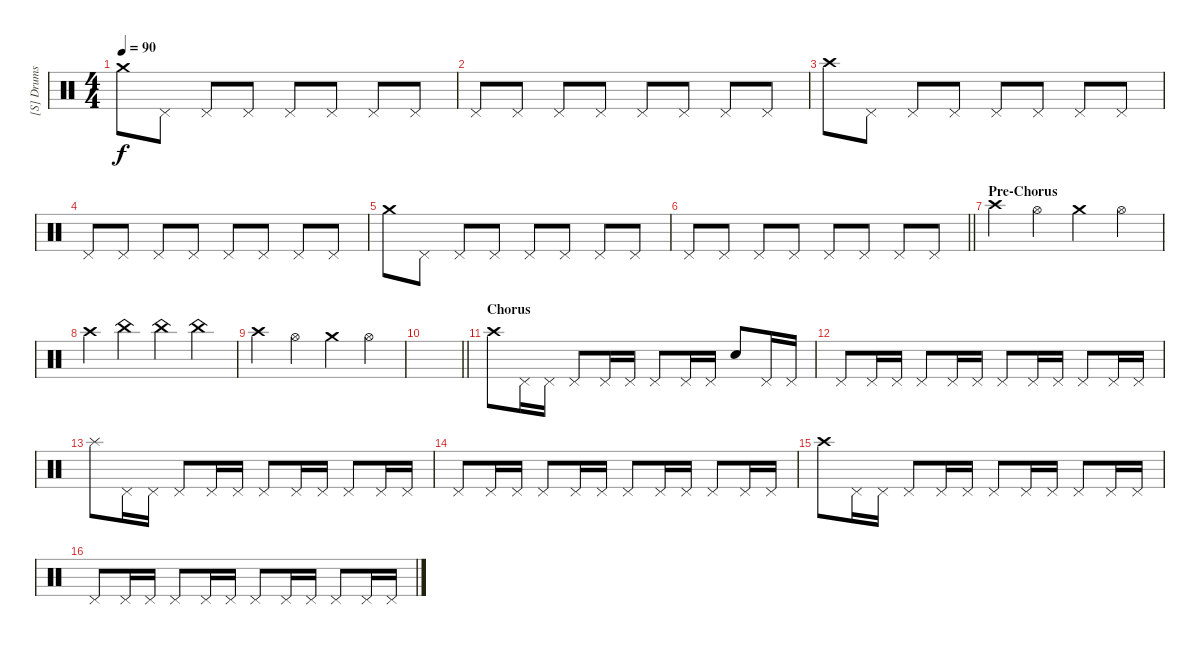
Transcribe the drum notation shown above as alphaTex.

\track ("[S] Drums II (Stewart)" "[S] Drums ") {instrument percussion}
\staff {score}
\articulation defaults
\ts (4 4)
\tempo 90
\clef neutral
\ks c "Crash medium (hit)".8{dy f} "Pedal Hi-Hat (hit)".8 "Pedal Hi-Hat (hit)".8 "Pedal Hi-Hat (hit)".8 "Pedal Hi-Hat (hit)".8 "Pedal Hi-Hat (hit)".8 "Pedal Hi-Hat (hit)".8 "Pedal Hi-Hat (hit)".8
|
"Pedal Hi-Hat (hit)".8 "Pedal Hi-Hat (hit)".8 "Pedal Hi-Hat (hit)".8 "Pedal Hi-Hat (hit)".8 "Pedal Hi-Hat (hit)".8 "Pedal Hi-Hat (hit)".8 "Pedal Hi-Hat (hit)".8 "Pedal Hi-Hat (hit)".8 |
"Crash high (hit)".8 "Pedal Hi-Hat (hit)".8 "Pedal Hi-Hat (hit)".8 "Pedal Hi-Hat (hit)".8 "Pedal Hi-Hat (hit)".8 "Pedal Hi-Hat (hit)".8 "Pedal Hi-Hat (hit)".8 "Pedal Hi-Hat (hit)".8 |
"Pedal Hi-Hat (hit)".8 "Pedal Hi-Hat (hit)".8 "Pedal Hi-Hat (hit)".8 "Pedal Hi-Hat (hit)".8 "Pedal Hi-Hat (hit)".8 "Pedal Hi-Hat (hit)".8 "Pedal Hi-Hat (hit)".8 "Pedal Hi-Hat (hit)".8 |
"Crash medium (hit)".8 "Pedal Hi-Hat (hit)".8 "Pedal Hi-Hat (hit)".8 "Pedal Hi-Hat (hit)".8 "Pedal Hi-Hat (hit)".8 "Pedal Hi-Hat (hit)".8 "Pedal Hi-Hat (hit)".8 "Pedal Hi-Hat (hit)".8 |
\barLineRight lightlight "Pedal Hi-Hat (hit)".8 "Pedal Hi-Hat (hit)".8 "Pedal Hi-Hat (hit)".8 "Pedal Hi-Hat (hit)".8 "Pedal Hi-Hat (hit)".8 "Pedal Hi-Hat (hit)".8 "Pedal Hi-Hat (hit)".8 "Pedal Hi-Hat (hit)".8
|
\section ("" "Pre-Chorus")
"Crash high (hit)".4 "Hi-Hat (open)".4 "Crash medium (hit)".4 "Hi-Hat (open)".4 |
"Crash high (hit)".4 "China (hit)".4 "China (hit)".4 "China (hit)".4 |
"Crash high (hit)".4 "Hi-Hat (open)".4 "Crash medium (hit)".4 "Hi-Hat (open)".4 |
\barLineRight lightlight
|
\section ("" "Chorus")
"Crash high (hit)".8 "Pedal Hi-Hat (hit)".16 "Pedal Hi-Hat (hit)".16 "Pedal Hi-Hat (hit)".8 "Pedal Hi-Hat (hit)".16 "Pedal Hi-Hat (hit)".16 "Pedal Hi-Hat (hit)".8 "Pedal Hi-Hat (hit)".16 "Pedal Hi-Hat (hit)".16 "Snare (hit)".8 "Pedal Hi-Hat (hit)".16 "Pedal Hi-Hat (hit)".16 |
"Pedal Hi-Hat (hit)".8 "Pedal Hi-Hat (hit)".16 "Pedal Hi-Hat (hit)".16 "Pedal Hi-Hat (hit)".8 "Pedal Hi-Hat (hit)".16 "Pedal Hi-Hat (hit)".16 "Pedal Hi-Hat (hit)".8 "Pedal Hi-Hat (hit)".16 "Pedal Hi-Hat (hit)".16 "Pedal Hi-Hat (hit)".8 "Pedal Hi-Hat (hit)".16 "Pedal Hi-Hat (hit)".16 |
"Splash (hit)".8 "Pedal Hi-Hat (hit)".16 "Pedal Hi-Hat (hit)".16 "Pedal Hi-Hat (hit)".8 "Pedal Hi-Hat (hit)".16 "Pedal Hi-Hat (hit)".16 "Pedal Hi-Hat (hit)".8 "Pedal Hi-Hat (hit)".16 "Pedal Hi-Hat (hit)".16 "Pedal Hi-Hat (hit)".8 "Pedal Hi-Hat (hit)".16 "Pedal Hi-Hat (hit)".16 |
"Pedal Hi-Hat (hit)".8 "Pedal Hi-Hat (hit)".16 "Pedal Hi-Hat (hit)".16 "Pedal Hi-Hat (hit)".8 "Pedal Hi-Hat (hit)".16 "Pedal Hi-Hat (hit)".16 "Pedal Hi-Hat (hit)".8 "Pedal Hi-Hat (hit)".16 "Pedal Hi-Hat (hit)".16 "Pedal Hi-Hat (hit)".8 "Pedal Hi-Hat (hit)".16 "Pedal Hi-Hat (hit)".16 |
"Crash high (hit)".8 "Pedal Hi-Hat (hit)".16 "Pedal Hi-Hat (hit)".16 "Pedal Hi-Hat (hit)".8 "Pedal Hi-Hat (hit)".16 "Pedal Hi-Hat (hit)".16 "Pedal Hi-Hat (hit)".8 "Pedal Hi-Hat (hit)".16 "Pedal Hi-Hat (hit)".16 "Pedal Hi-Hat (hit)".8 "Pedal Hi-Hat (hit)".16 "Pedal Hi-Hat (hit)".16 |
"Pedal Hi-Hat (hit)".8 "Pedal Hi-Hat (hit)".16 "Pedal Hi-Hat (hit)".16 "Pedal Hi-Hat (hit)".8 "Pedal Hi-Hat (hit)".16 "Pedal Hi-Hat (hit)".16 "Pedal Hi-Hat (hit)".8 "Pedal Hi-Hat (hit)".16 "Pedal Hi-Hat (hit)".16 "Pedal Hi-Hat (hit)".8 "Pedal Hi-Hat (hit)".16 "Pedal Hi-Hat (hit)".16
